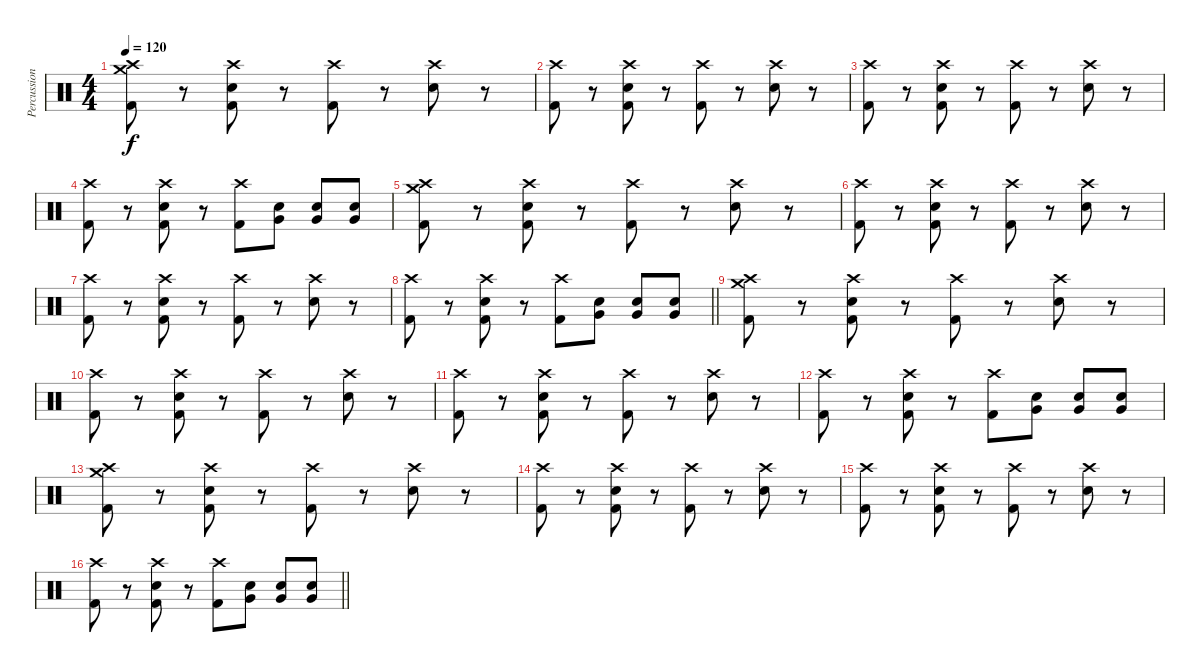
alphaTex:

\track ("Percussion" "Percussion") {instrument percussion}
\staff {score}
\articulation defaults
\ts (4 4)
\section ("" "")
\tempo 120
\clef neutral
\ks c
("Crash medium (hit)" "Crash high (hit)" "Kick (hit) 2").8{dy f} r.8 ("Crash high (hit)" "Snare (hit) 2" "Kick (hit) 2").8 r.8 ("Crash high (hit)" "Kick (hit) 2").8 r.8 ("Crash high (hit)" "Snare (hit) 2").8 r.8 |
("Crash high (hit)" "Kick (hit) 2").8 r.8 ("Crash high (hit)" "Snare (hit) 2" "Kick (hit) 2").8 r.8 ("Crash high (hit)" "Kick (hit) 2").8 r.8 ("Crash high (hit)" "Snare (hit) 2").8 r.8 |
("Crash high (hit)" "Kick (hit) 2").8 r.8 ("Crash high (hit)" "Snare (hit) 2" "Kick (hit) 2").8 r.8 ("Crash high (hit)" "Kick (hit) 2").8 r.8 ("Crash high (hit)" "Snare (hit) 2").8 r.8 |
("Crash high (hit)" "Kick (hit) 2").8 r.8 ("Crash high (hit)" "Snare (hit) 2" "Kick (hit) 2").8 r.8 ("Crash high (hit)" "Kick (hit) 2").8 ("Very Low Tom (hit)" "Snare (hit) 2").8 ("Very Low Tom (hit)" "Snare (hit) 2").8 ("Very Low Tom (hit)" "Snare (hit) 2").8 |
("Crash medium (hit)" "Crash high (hit)" "Kick (hit) 2").8 r.8 ("Crash high (hit)" "Snare (hit) 2" "Kick (hit) 2").8 r.8 ("Crash high (hit)" "Kick (hit) 2").8 r.8 ("Crash high (hit)" "Snare (hit) 2").8 r.8 |
("Crash high (hit)" "Kick (hit) 2").8 r.8 ("Crash high (hit)" "Snare (hit) 2" "Kick (hit) 2").8 r.8 ("Crash high (hit)" "Kick (hit) 2").8 r.8 ("Crash high (hit)" "Snare (hit) 2").8 r.8 |
("Crash high (hit)" "Kick (hit) 2").8 r.8 ("Crash high (hit)" "Snare (hit) 2" "Kick (hit) 2").8 r.8 ("Crash high (hit)" "Kick (hit) 2").8 r.8 ("Crash high (hit)" "Snare (hit) 2").8 r.8 |
\barLineRight lightlight
("Crash high (hit)" "Kick (hit) 2").8 r.8 ("Crash high (hit)" "Snare (hit) 2" "Kick (hit) 2").8 r.8 ("Crash high (hit)" "Kick (hit) 2").8 ("Very Low Tom (hit)" "Snare (hit) 2").8 ("Very Low Tom (hit)" "Snare (hit) 2").8 ("Very Low Tom (hit)" "Snare (hit) 2").8 |
("Crash medium (hit)" "Crash high (hit)" "Kick (hit) 2").8 r.8 ("Crash high (hit)" "Snare (hit) 2" "Kick (hit) 2").8 r.8 ("Crash high (hit)" "Kick (hit) 2").8 r.8 ("Crash high (hit)" "Snare (hit) 2").8 r.8 |
("Crash high (hit)" "Kick (hit) 2").8 r.8 ("Crash high (hit)" "Snare (hit) 2" "Kick (hit) 2").8 r.8 ("Crash high (hit)" "Kick (hit) 2").8 r.8 ("Crash high (hit)" "Snare (hit) 2").8 r.8 |
("Crash high (hit)" "Kick (hit) 2").8 r.8 ("Crash high (hit)" "Snare (hit) 2" "Kick (hit) 2").8 r.8 ("Crash high (hit)" "Kick (hit) 2").8 r.8 ("Crash high (hit)" "Snare (hit) 2").8 r.8 |
("Crash high (hit)" "Kick (hit) 2").8 r.8 ("Crash high (hit)" "Snare (hit) 2" "Kick (hit) 2").8 r.8 ("Crash high (hit)" "Kick (hit) 2").8 ("Very Low Tom (hit)" "Snare (hit) 2").8 ("Very Low Tom (hit)" "Snare (hit) 2").8 ("Very Low Tom (hit)" "Snare (hit) 2").8 |
("Crash medium (hit)" "Crash high (hit)" "Kick (hit) 2").8 r.8 ("Crash high (hit)" "Snare (hit) 2" "Kick (hit) 2").8 r.8 ("Crash high (hit)" "Kick (hit) 2").8 r.8 ("Crash high (hit)" "Snare (hit) 2").8 r.8 |
("Crash high (hit)" "Kick (hit) 2").8 r.8 ("Crash high (hit)" "Snare (hit) 2" "Kick (hit) 2").8 r.8 ("Crash high (hit)" "Kick (hit) 2").8 r.8 ("Crash high (hit)" "Snare (hit) 2").8 r.8 |
("Crash high (hit)" "Kick (hit) 2").8 r.8 ("Crash high (hit)" "Snare (hit) 2" "Kick (hit) 2").8 r.8 ("Crash high (hit)" "Kick (hit) 2").8 r.8 ("Crash high (hit)" "Snare (hit) 2").8 r.8 |
\barLineRight lightlight
("Crash high (hit)" "Kick (hit) 2").8 r.8 ("Crash high (hit)" "Snare (hit) 2" "Kick (hit) 2").8 r.8 ("Crash high (hit)" "Kick (hit) 2").8 ("Very Low Tom (hit)" "Snare (hit) 2").8 ("Very Low Tom (hit)" "Snare (hit) 2").8 ("Very Low Tom (hit)" "Snare (hit) 2").8
